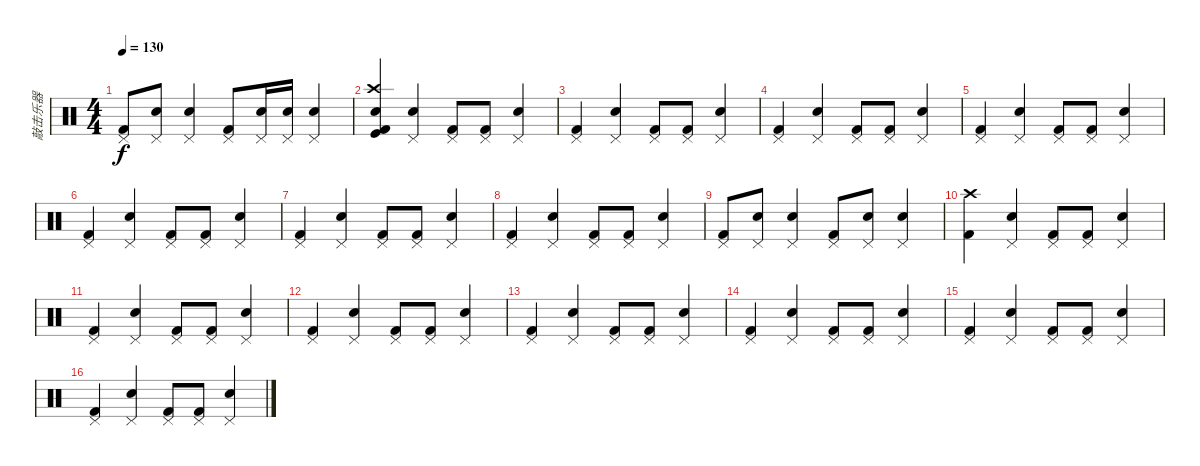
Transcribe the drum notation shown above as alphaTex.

\track ("敲击乐器" "敲击乐器") {instrument percussion}
\staff {score}
\articulation defaults
\ts (4 4)
\tempo 130
\clef neutral
\ks c
("Kick (hit) 2" "Pedal Hi-Hat (hit)").8{dy f} ("Snare (hit) 2" "Pedal Hi-Hat (hit)").8 ("Snare (hit) 2" "Pedal Hi-Hat (hit)").4 ("Kick (hit) 2" "Pedal Hi-Hat (hit)").8 ("Snare (hit) 2" "Pedal Hi-Hat (hit)").16 ("Snare (hit) 2" "Pedal Hi-Hat (hit)").16 ("Snare (hit) 2" "Pedal Hi-Hat (hit)").4 |
("Kick (hit) 2" "Crash high (hit)" "Kick (hit)" "Metronome (bell)").4 ("Snare (hit) 2" "Pedal Hi-Hat (hit)").4 ("Kick (hit) 2" "Pedal Hi-Hat (hit)").8 ("Kick (hit) 2" "Pedal Hi-Hat (hit)").8 ("Snare (hit) 2" "Pedal Hi-Hat (hit)").4 |
("Kick (hit) 2" "Pedal Hi-Hat (hit)").4 ("Snare (hit) 2" "Pedal Hi-Hat (hit)").4 ("Kick (hit) 2" "Pedal Hi-Hat (hit)").8 ("Kick (hit) 2" "Pedal Hi-Hat (hit)").8 ("Snare (hit) 2" "Pedal Hi-Hat (hit)").4 |
("Kick (hit) 2" "Pedal Hi-Hat (hit)").4 ("Snare (hit) 2" "Pedal Hi-Hat (hit)").4 ("Kick (hit) 2" "Pedal Hi-Hat (hit)").8 ("Kick (hit) 2" "Pedal Hi-Hat (hit)").8 ("Snare (hit) 2" "Pedal Hi-Hat (hit)").4 |
("Kick (hit) 2" "Pedal Hi-Hat (hit)").4 ("Snare (hit) 2" "Pedal Hi-Hat (hit)").4 ("Kick (hit) 2" "Pedal Hi-Hat (hit)").8 ("Kick (hit) 2" "Pedal Hi-Hat (hit)").8 ("Snare (hit) 2" "Pedal Hi-Hat (hit)").4 |
("Kick (hit) 2" "Pedal Hi-Hat (hit)").4 ("Snare (hit) 2" "Pedal Hi-Hat (hit)").4 ("Kick (hit) 2" "Pedal Hi-Hat (hit)").8 ("Kick (hit) 2" "Pedal Hi-Hat (hit)").8 ("Snare (hit) 2" "Pedal Hi-Hat (hit)").4 |
("Kick (hit) 2" "Pedal Hi-Hat (hit)").4 ("Snare (hit) 2" "Pedal Hi-Hat (hit)").4 ("Kick (hit) 2" "Pedal Hi-Hat (hit)").8 ("Kick (hit) 2" "Pedal Hi-Hat (hit)").8 ("Snare (hit) 2" "Pedal Hi-Hat (hit)").4 |
("Kick (hit) 2" "Pedal Hi-Hat (hit)").4 ("Snare (hit) 2" "Pedal Hi-Hat (hit)").4 ("Kick (hit) 2" "Pedal Hi-Hat (hit)").8 ("Kick (hit) 2" "Pedal Hi-Hat (hit)").8 ("Snare (hit) 2" "Pedal Hi-Hat (hit)").4 |
("Kick (hit) 2" "Pedal Hi-Hat (hit)").8 ("Snare (hit) 2" "Pedal Hi-Hat (hit)").8 ("Snare (hit) 2" "Pedal Hi-Hat (hit)").4 ("Kick (hit) 2" "Pedal Hi-Hat (hit)").8 ("Snare (hit) 2" "Pedal Hi-Hat (hit)").8 ("Snare (hit) 2" "Pedal Hi-Hat (hit)").4 |
("Kick (hit) 2" "Crash high (hit)").4 ("Snare (hit) 2" "Pedal Hi-Hat (hit)").4 ("Kick (hit) 2" "Pedal Hi-Hat (hit)").8 ("Kick (hit) 2" "Pedal Hi-Hat (hit)").8 ("Snare (hit) 2" "Pedal Hi-Hat (hit)").4 |
("Kick (hit) 2" "Pedal Hi-Hat (hit)").4 ("Snare (hit) 2" "Pedal Hi-Hat (hit)").4 ("Kick (hit) 2" "Pedal Hi-Hat (hit)").8 ("Kick (hit) 2" "Pedal Hi-Hat (hit)").8 ("Snare (hit) 2" "Pedal Hi-Hat (hit)").4 |
("Kick (hit) 2" "Pedal Hi-Hat (hit)").4 ("Snare (hit) 2" "Pedal Hi-Hat (hit)").4 ("Kick (hit) 2" "Pedal Hi-Hat (hit)").8 ("Kick (hit) 2" "Pedal Hi-Hat (hit)").8 ("Snare (hit) 2" "Pedal Hi-Hat (hit)").4 |
("Kick (hit) 2" "Pedal Hi-Hat (hit)").4 ("Snare (hit) 2" "Pedal Hi-Hat (hit)").4 ("Kick (hit) 2" "Pedal Hi-Hat (hit)").8 ("Kick (hit) 2" "Pedal Hi-Hat (hit)").8 ("Snare (hit) 2" "Pedal Hi-Hat (hit)").4 |
("Kick (hit) 2" "Pedal Hi-Hat (hit)").4 ("Snare (hit) 2" "Pedal Hi-Hat (hit)").4 ("Kick (hit) 2" "Pedal Hi-Hat (hit)").8 ("Kick (hit) 2" "Pedal Hi-Hat (hit)").8 ("Snare (hit) 2" "Pedal Hi-Hat (hit)").4 |
("Kick (hit) 2" "Pedal Hi-Hat (hit)").4 ("Snare (hit) 2" "Pedal Hi-Hat (hit)").4 ("Kick (hit) 2" "Pedal Hi-Hat (hit)").8 ("Kick (hit) 2" "Pedal Hi-Hat (hit)").8 ("Snare (hit) 2" "Pedal Hi-Hat (hit)").4 |
("Kick (hit) 2" "Pedal Hi-Hat (hit)").4 ("Snare (hit) 2" "Pedal Hi-Hat (hit)").4 ("Kick (hit) 2" "Pedal Hi-Hat (hit)").8 ("Kick (hit) 2" "Pedal Hi-Hat (hit)").8 ("Snare (hit) 2" "Pedal Hi-Hat (hit)").4
